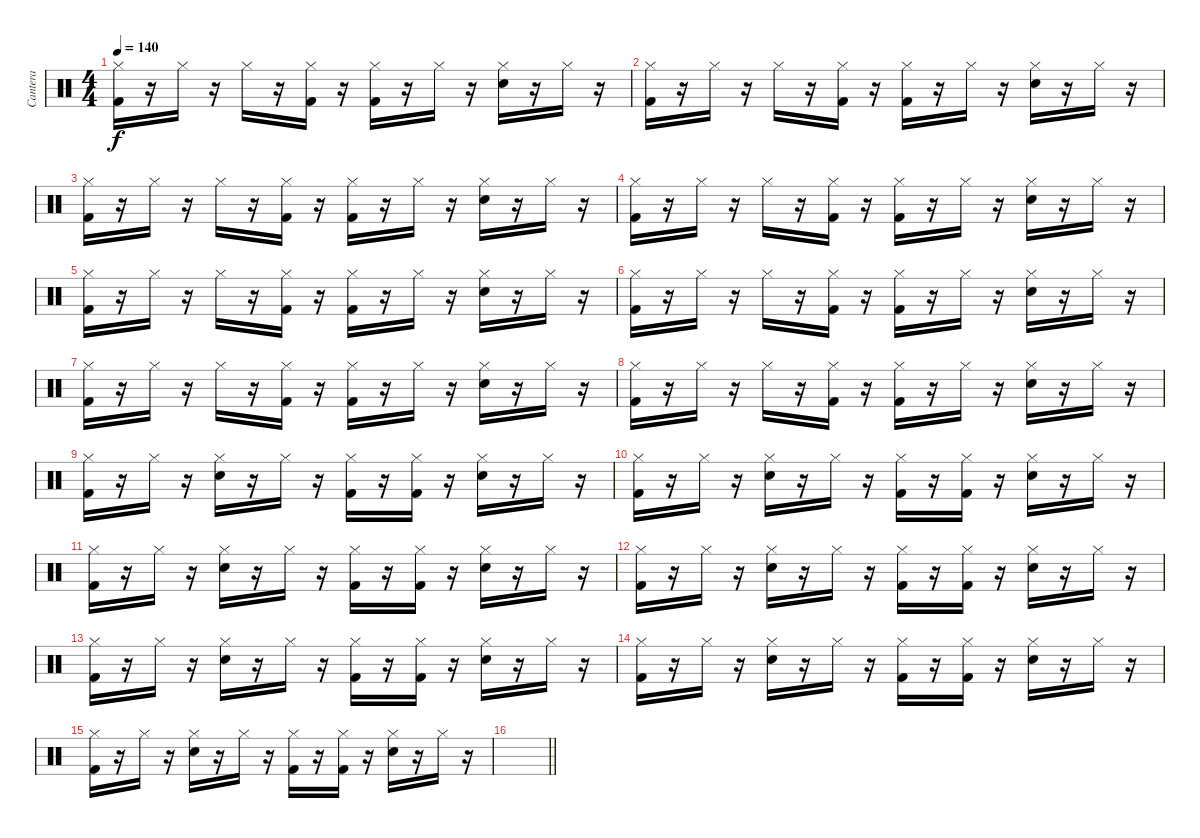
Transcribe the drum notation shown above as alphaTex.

\track ("Cantera" "Cantera") {instrument percussion}
\staff {score}
\articulation defaults
\ts (4 4)
\tempo 140
\clef neutral
\ks c
("Hi-Hat (closed)" "Kick (hit) 2").16{dy f} r.16 "Hi-Hat (closed)".16 r.16 "Hi-Hat (closed)".16 r.16 ("Hi-Hat (closed)" "Kick (hit) 2").16 r.16 ("Hi-Hat (closed)" "Kick (hit) 2").16 r.16 "Hi-Hat (closed)".16 r.16 ("Hi-Hat (closed)" "Snare (hit) 2").16 r.16 "Hi-Hat (closed)".16 r.16 |
("Hi-Hat (closed)" "Kick (hit) 2").16 r.16 "Hi-Hat (closed)".16 r.16 "Hi-Hat (closed)".16 r.16 ("Hi-Hat (closed)" "Kick (hit) 2").16 r.16 ("Hi-Hat (closed)" "Kick (hit) 2").16 r.16 "Hi-Hat (closed)".16 r.16 ("Hi-Hat (closed)" "Snare (hit) 2").16 r.16 "Hi-Hat (closed)".16 r.16 |
("Hi-Hat (closed)" "Kick (hit) 2").16 r.16 "Hi-Hat (closed)".16 r.16 "Hi-Hat (closed)".16 r.16 ("Hi-Hat (closed)" "Kick (hit) 2").16 r.16 ("Hi-Hat (closed)" "Kick (hit) 2").16 r.16 "Hi-Hat (closed)".16 r.16 ("Hi-Hat (closed)" "Snare (hit) 2").16 r.16 "Hi-Hat (closed)".16 r.16 |
("Hi-Hat (closed)" "Kick (hit) 2").16 r.16 "Hi-Hat (closed)".16 r.16 "Hi-Hat (closed)".16 r.16 ("Hi-Hat (closed)" "Kick (hit) 2").16 r.16 ("Hi-Hat (closed)" "Kick (hit) 2").16 r.16 "Hi-Hat (closed)".16 r.16 ("Hi-Hat (closed)" "Snare (hit) 2").16 r.16 "Hi-Hat (closed)".16 r.16 |
("Hi-Hat (closed)" "Kick (hit) 2").16 r.16 "Hi-Hat (closed)".16 r.16 "Hi-Hat (closed)".16 r.16 ("Hi-Hat (closed)" "Kick (hit) 2").16 r.16 ("Hi-Hat (closed)" "Kick (hit) 2").16 r.16 "Hi-Hat (closed)".16 r.16 ("Hi-Hat (closed)" "Snare (hit) 2").16 r.16 "Hi-Hat (closed)".16 r.16 |
("Hi-Hat (closed)" "Kick (hit) 2").16 r.16 "Hi-Hat (closed)".16 r.16 "Hi-Hat (closed)".16 r.16 ("Hi-Hat (closed)" "Kick (hit) 2").16 r.16 ("Hi-Hat (closed)" "Kick (hit) 2").16 r.16 "Hi-Hat (closed)".16 r.16 ("Hi-Hat (closed)" "Snare (hit) 2").16 r.16 "Hi-Hat (closed)".16 r.16 |
("Hi-Hat (closed)" "Kick (hit) 2").16 r.16 "Hi-Hat (closed)".16 r.16 "Hi-Hat (closed)".16 r.16 ("Hi-Hat (closed)" "Kick (hit) 2").16 r.16 ("Hi-Hat (closed)" "Kick (hit) 2").16 r.16 "Hi-Hat (closed)".16 r.16 ("Hi-Hat (closed)" "Snare (hit) 2").16 r.16 "Hi-Hat (closed)".16 r.16 |
("Hi-Hat (closed)" "Kick (hit) 2").16 r.16 "Hi-Hat (closed)".16 r.16 "Hi-Hat (closed)".16 r.16 ("Hi-Hat (closed)" "Kick (hit) 2").16 r.16 ("Hi-Hat (closed)" "Kick (hit) 2").16 r.16 "Hi-Hat (closed)".16 r.16 ("Hi-Hat (closed)" "Snare (hit) 2").16 r.16 "Hi-Hat (closed)".16 r.16 |
("Hi-Hat (closed)" "Kick (hit) 2").16 r.16 "Hi-Hat (closed)".16 r.16 ("Hi-Hat (closed)" "Snare (hit) 2").16 r.16 "Hi-Hat (closed)".16 r.16 ("Hi-Hat (closed)" "Kick (hit) 2").16 r.16 ("Hi-Hat (closed)" "Kick (hit) 2").16 r.16 ("Hi-Hat (closed)" "Snare (hit) 2").16 r.16 "Hi-Hat (closed)".16 r.16 |
("Hi-Hat (closed)" "Kick (hit) 2").16 r.16 "Hi-Hat (closed)".16 r.16 ("Hi-Hat (closed)" "Snare (hit) 2").16 r.16 "Hi-Hat (closed)".16 r.16 ("Hi-Hat (closed)" "Kick (hit) 2").16 r.16 ("Hi-Hat (closed)" "Kick (hit) 2").16 r.16 ("Hi-Hat (closed)" "Snare (hit) 2").16 r.16 "Hi-Hat (closed)".16 r.16 |
("Hi-Hat (closed)" "Kick (hit) 2").16 r.16 "Hi-Hat (closed)".16 r.16 ("Hi-Hat (closed)" "Snare (hit) 2").16 r.16 "Hi-Hat (closed)".16 r.16 ("Hi-Hat (closed)" "Kick (hit) 2").16 r.16 ("Hi-Hat (closed)" "Kick (hit) 2").16 r.16 ("Hi-Hat (closed)" "Snare (hit) 2").16 r.16 "Hi-Hat (closed)".16 r.16 |
("Hi-Hat (closed)" "Kick (hit) 2").16 r.16 "Hi-Hat (closed)".16 r.16 ("Hi-Hat (closed)" "Snare (hit) 2").16 r.16 "Hi-Hat (closed)".16 r.16 ("Hi-Hat (closed)" "Kick (hit) 2").16 r.16 ("Hi-Hat (closed)" "Kick (hit) 2").16 r.16 ("Hi-Hat (closed)" "Snare (hit) 2").16 r.16 "Hi-Hat (closed)".16 r.16 |
("Hi-Hat (closed)" "Kick (hit) 2").16 r.16 "Hi-Hat (closed)".16 r.16 ("Hi-Hat (closed)" "Snare (hit) 2").16 r.16 "Hi-Hat (closed)".16 r.16 ("Hi-Hat (closed)" "Kick (hit) 2").16 r.16 ("Hi-Hat (closed)" "Kick (hit) 2").16 r.16 ("Hi-Hat (closed)" "Snare (hit) 2").16 r.16 "Hi-Hat (closed)".16 r.16 |
("Hi-Hat (closed)" "Kick (hit) 2").16 r.16 "Hi-Hat (closed)".16 r.16 ("Hi-Hat (closed)" "Snare (hit) 2").16 r.16 "Hi-Hat (closed)".16 r.16 ("Hi-Hat (closed)" "Kick (hit) 2").16 r.16 ("Hi-Hat (closed)" "Kick (hit) 2").16 r.16 ("Hi-Hat (closed)" "Snare (hit) 2").16 r.16 "Hi-Hat (closed)".16 r.16 |
("Hi-Hat (closed)" "Kick (hit) 2").16 r.16 "Hi-Hat (closed)".16 r.16 ("Hi-Hat (closed)" "Snare (hit) 2").16 r.16 "Hi-Hat (closed)".16 r.16 ("Hi-Hat (closed)" "Kick (hit) 2").16 r.16 ("Hi-Hat (closed)" "Kick (hit) 2").16 r.16 ("Hi-Hat (closed)" "Snare (hit) 2").16 r.16 "Hi-Hat (closed)".16 r.16 |
\barLineRight lightlight
